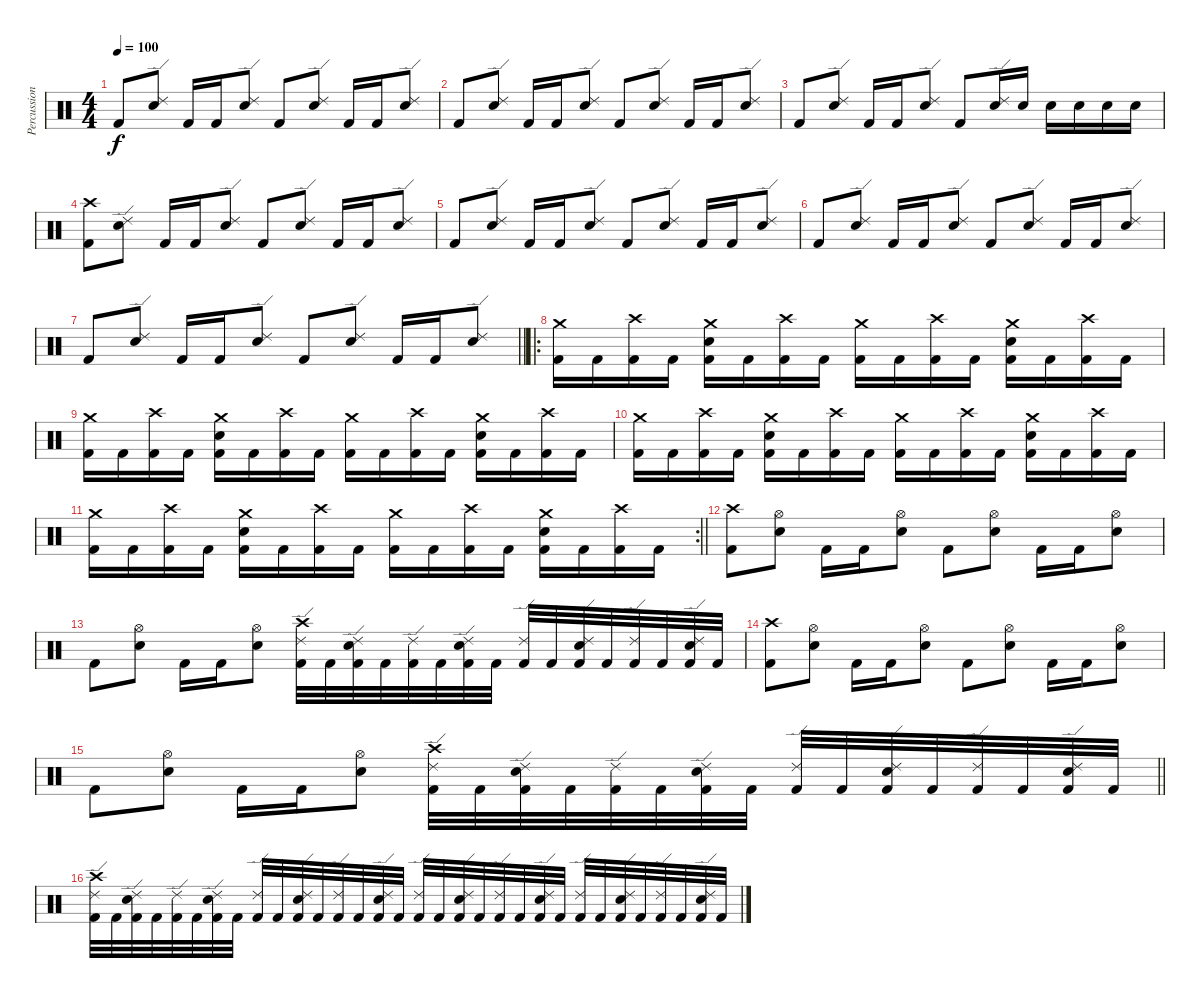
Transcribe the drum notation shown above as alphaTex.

\track ("Percussion" "Percussion") {instrument percussion}
\staff {score}
\articulation defaults
\ts (4 4)
\tempo 100
\clef neutral
\ks c "Kick (hit) 2".8{dy f}
("Ride (edge) 2" "Snare (hit) 2").8 "Kick (hit) 2".16 "Kick (hit) 2".16 ("Ride (edge) 2" "Snare (hit) 2").8 "Kick (hit) 2".8 ("Ride (edge) 2" "Snare (hit) 2").8 "Kick (hit) 2".16 "Kick (hit) 2".16 ("Ride (edge) 2" "Snare (hit) 2").8 |
"Kick (hit) 2".8 ("Ride (edge) 2" "Snare (hit) 2").8 "Kick (hit) 2".16 "Kick (hit) 2".16 ("Ride (edge) 2" "Snare (hit) 2").8 "Kick (hit) 2".8 ("Ride (edge) 2" "Snare (hit) 2").8 "Kick (hit) 2".16 "Kick (hit) 2".16 ("Ride (edge) 2" "Snare (hit) 2").8 |
"Kick (hit) 2".8 ("Ride (edge) 2" "Snare (hit) 2").8 "Kick (hit) 2".16 "Kick (hit) 2".16 ("Ride (edge) 2" "Snare (hit) 2").8 "Kick (hit) 2".8 ("Ride (edge) 2" "Snare (hit) 2").16 "Snare (hit) 2".16 "Snare (hit) 2".16 "Snare (hit) 2".16 "Snare (hit) 2".16 "Snare (hit) 2".16 |
("Crash high (hit)" "Kick (hit) 2").8 ("Ride (edge) 2" "Snare (hit) 2").8 "Kick (hit) 2".16 "Kick (hit) 2".16 ("Ride (edge) 2" "Snare (hit) 2").8 "Kick (hit) 2".8 ("Ride (edge) 2" "Snare (hit) 2").8 "Kick (hit) 2".16 "Kick (hit) 2".16 ("Ride (edge) 2" "Snare (hit) 2").8 |
"Kick (hit) 2".8 ("Ride (edge) 2" "Snare (hit) 2").8 "Kick (hit) 2".16 "Kick (hit) 2".16 ("Ride (edge) 2" "Snare (hit) 2").8 "Kick (hit) 2".8 ("Ride (edge) 2" "Snare (hit) 2").8 "Kick (hit) 2".16 "Kick (hit) 2".16 ("Ride (edge) 2" "Snare (hit) 2").8 |
"Kick (hit) 2".8 ("Ride (edge) 2" "Snare (hit) 2").8 "Kick (hit) 2".16 "Kick (hit) 2".16 ("Ride (edge) 2" "Snare (hit) 2").8 "Kick (hit) 2".8 ("Ride (edge) 2" "Snare (hit) 2").8 "Kick (hit) 2".16 "Kick (hit) 2".16 ("Ride (edge) 2" "Snare (hit) 2").8 |
\barLineRight lightlight "Kick (hit) 2".8
("Ride (edge) 2" "Snare (hit) 2").8 "Kick (hit) 2".16 "Kick (hit) 2".16 ("Ride (edge) 2" "Snare (hit) 2").8 "Kick (hit) 2".8 ("Ride (edge) 2" "Snare (hit) 2").8 "Kick (hit) 2".16 "Kick (hit) 2".16 ("Ride (edge) 2" "Snare (hit) 2").8 |
\ro
\section ("" "")
("Kick (hit) 2" "Crash medium (hit)").16 "Kick (hit) 2".16 ("Kick (hit) 2" "Crash high (hit)").16 "Kick (hit) 2".16 ("Kick (hit) 2" "Snare (hit) 2" "Crash medium (hit)").16 "Kick (hit) 2".16 ("Kick (hit) 2" "Crash high (hit)").16 "Kick (hit) 2".16 ("Kick (hit) 2" "Crash medium (hit)").16 "Kick (hit) 2".16 ("Kick (hit) 2" "Crash high (hit)").16 "Kick (hit) 2".16 ("Kick (hit) 2" "Snare (hit) 2" "Crash medium (hit)").16 "Kick (hit) 2".16 ("Kick (hit) 2" "Crash high (hit)").16 "Kick (hit) 2".16 |
("Kick (hit) 2" "Crash medium (hit)").16 "Kick (hit) 2".16 ("Kick (hit) 2" "Crash high (hit)").16 "Kick (hit) 2".16 ("Kick (hit) 2" "Snare (hit) 2" "Crash medium (hit)").16 "Kick (hit) 2".16 ("Kick (hit) 2" "Crash high (hit)").16 "Kick (hit) 2".16 ("Kick (hit) 2" "Crash medium (hit)").16 "Kick (hit) 2".16 ("Kick (hit) 2" "Crash high (hit)").16 "Kick (hit) 2".16 ("Kick (hit) 2" "Snare (hit) 2" "Crash medium (hit)").16 "Kick (hit) 2".16 ("Kick (hit) 2" "Crash high (hit)").16 "Kick (hit) 2".16 |
("Kick (hit) 2" "Crash medium (hit)").16 "Kick (hit) 2".16 ("Kick (hit) 2" "Crash high (hit)").16 "Kick (hit) 2".16 ("Kick (hit) 2" "Snare (hit) 2" "Crash medium (hit)").16 "Kick (hit) 2".16 ("Kick (hit) 2" "Crash high (hit)").16 "Kick (hit) 2".16 ("Kick (hit) 2" "Crash medium (hit)").16 "Kick (hit) 2".16 ("Kick (hit) 2" "Crash high (hit)").16 "Kick (hit) 2".16 ("Kick (hit) 2" "Snare (hit) 2" "Crash medium (hit)").16 "Kick (hit) 2".16 ("Kick (hit) 2" "Crash high (hit)").16 "Kick (hit) 2".16 |
\rc 2
\barLineRight lightlight
("Kick (hit) 2" "Crash medium (hit)").16 "Kick (hit) 2".16 ("Kick (hit) 2" "Crash high (hit)").16 "Kick (hit) 2".16 ("Kick (hit) 2" "Snare (hit) 2" "Crash medium (hit)").16 "Kick (hit) 2".16 ("Kick (hit) 2" "Crash high (hit)").16 "Kick (hit) 2".16 ("Kick (hit) 2" "Crash medium (hit)").16 "Kick (hit) 2".16 ("Kick (hit) 2" "Crash high (hit)").16 "Kick (hit) 2".16 ("Kick (hit) 2" "Snare (hit) 2" "Crash medium (hit)").16 "Kick (hit) 2".16 ("Kick (hit) 2" "Crash high (hit)").16 "Kick (hit) 2".16 |
\section ("" "")
("Crash high (hit)" "Kick (hit) 2").8 ("Hi-Hat (open)" "Snare (hit) 2").8 "Kick (hit) 2".16 "Kick (hit) 2".16 ("Hi-Hat (open)" "Snare (hit) 2").8 "Kick (hit) 2".8 ("Hi-Hat (open)" "Snare (hit) 2").8 "Kick (hit) 2".16 "Kick (hit) 2".16 ("Hi-Hat (open)" "Snare (hit) 2").8 |
"Kick (hit) 2".8 ("Hi-Hat (open)" "Snare (hit) 2").8 "Kick (hit) 2".16 "Kick (hit) 2".16 ("Hi-Hat (open)" "Snare (hit) 2").8 ("Ride (edge) 2" "Crash high (hit)" "Kick (hit) 2").32 "Kick (hit) 2".32 ("Ride (edge) 2" "Snare (hit) 2" "Kick (hit) 2").32 "Kick (hit) 2".32 ("Ride (edge) 2" "Kick (hit) 2").32 "Kick (hit) 2".32 ("Ride (edge) 2" "Snare (hit) 2" "Kick (hit) 2").32 "Kick (hit) 2".32 ("Ride (edge) 2" "Kick (hit) 2").32 "Kick (hit) 2".32 ("Ride (edge) 2" "Snare (hit) 2" "Kick (hit) 2").32 "Kick (hit) 2".32 ("Ride (edge) 2" "Kick (hit) 2").32 "Kick (hit) 2".32 ("Ride (edge) 2" "Snare (hit) 2" "Kick (hit) 2").32 "Kick (hit) 2".32 |
("Crash high (hit)" "Kick (hit) 2").8 ("Hi-Hat (open)" "Snare (hit) 2").8 "Kick (hit) 2".16 "Kick (hit) 2".16 ("Hi-Hat (open)" "Snare (hit) 2").8 "Kick (hit) 2".8 ("Hi-Hat (open)" "Snare (hit) 2").8 "Kick (hit) 2".16 "Kick (hit) 2".16 ("Hi-Hat (open)" "Snare (hit) 2").8 |
\barLineRight lightlight "Kick (hit) 2".8
("Hi-Hat (open)" "Snare (hit) 2").8 "Kick (hit) 2".16 "Kick (hit) 2".16 ("Hi-Hat (open)" "Snare (hit) 2").8 ("Ride (edge) 2" "Crash high (hit)" "Kick (hit) 2").32 "Kick (hit) 2".32 ("Ride (edge) 2" "Snare (hit) 2" "Kick (hit) 2").32 "Kick (hit) 2".32 ("Ride (edge) 2" "Kick (hit) 2").32 "Kick (hit) 2".32 ("Ride (edge) 2" "Snare (hit) 2" "Kick (hit) 2").32 "Kick (hit) 2".32 ("Ride (edge) 2" "Kick (hit) 2").32 "Kick (hit) 2".32 ("Ride (edge) 2" "Snare (hit) 2" "Kick (hit) 2").32 "Kick (hit) 2".32 ("Ride (edge) 2" "Kick (hit) 2").32 "Kick (hit) 2".32 ("Ride (edge) 2" "Snare (hit) 2" "Kick (hit) 2").32 "Kick (hit) 2".32 |
\section ("" "")
("Ride (edge) 2" "Crash high (hit)" "Kick (hit) 2").32 "Kick (hit) 2".32 ("Ride (edge) 2" "Snare (hit) 2" "Kick (hit) 2").32 "Kick (hit) 2".32 ("Ride (edge) 2" "Kick (hit) 2").32 "Kick (hit) 2".32 ("Ride (edge) 2" "Snare (hit) 2" "Kick (hit) 2").32 "Kick (hit) 2".32 ("Ride (edge) 2" "Kick (hit) 2").32 "Kick (hit) 2".32 ("Ride (edge) 2" "Snare (hit) 2" "Kick (hit) 2").32 "Kick (hit) 2".32 ("Ride (edge) 2" "Kick (hit) 2").32 "Kick (hit) 2".32 ("Ride (edge) 2" "Snare (hit) 2" "Kick (hit) 2").32 "Kick (hit) 2".32 ("Ride (edge) 2" "Kick (hit) 2").32 "Kick (hit) 2".32 ("Ride (edge) 2" "Snare (hit) 2" "Kick (hit) 2").32 "Kick (hit) 2".32 ("Ride (edge) 2" "Kick (hit) 2").32 "Kick (hit) 2".32 ("Ride (edge) 2" "Snare (hit) 2" "Kick (hit) 2").32 "Kick (hit) 2".32 ("Ride (edge) 2" "Kick (hit) 2").32 "Kick (hit) 2".32 ("Ride (edge) 2" "Snare (hit) 2" "Kick (hit) 2").32 "Kick (hit) 2".32 ("Ride (edge) 2" "Kick (hit) 2").32 "Kick (hit) 2".32 ("Ride (edge) 2" "Snare (hit) 2" "Kick (hit) 2").32 "Kick (hit) 2".32
